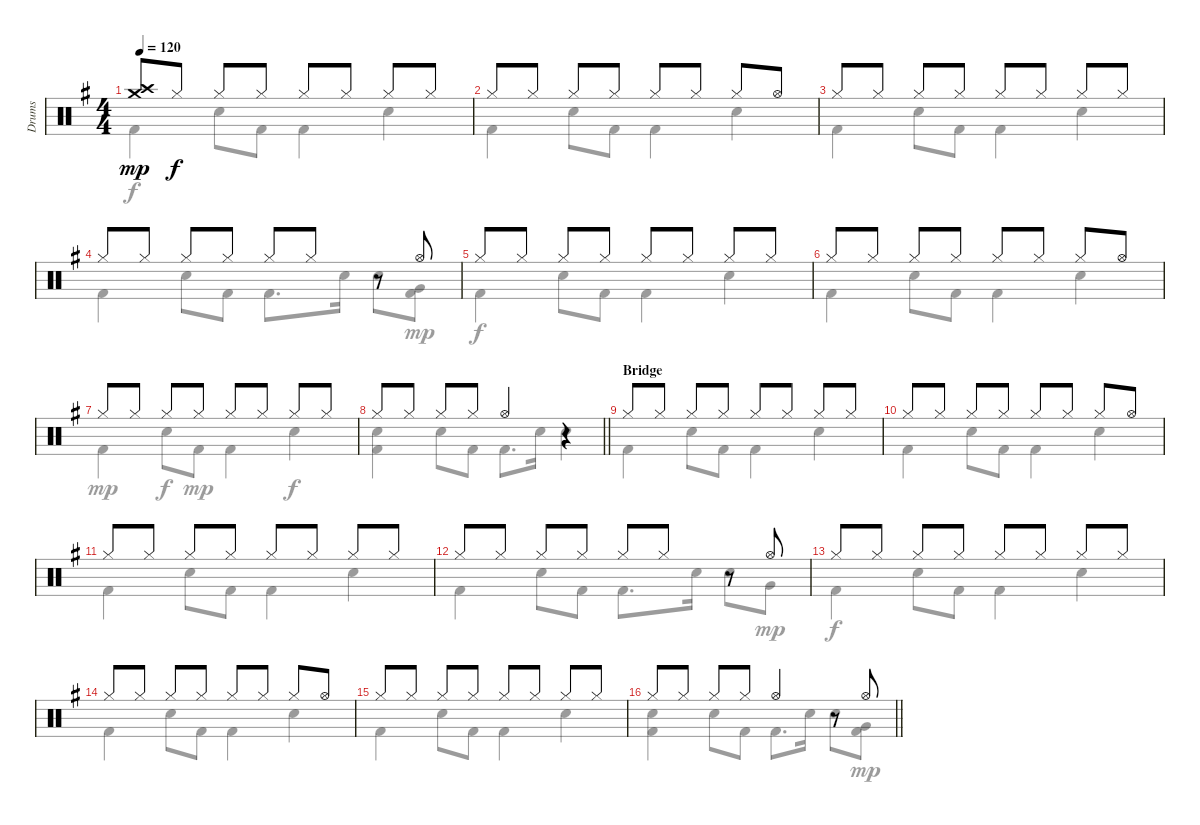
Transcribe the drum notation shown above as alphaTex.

\track ("Drums" "Drums") {instrument percussion}
\staff {score}
\articulation defaults
\voice
\ts (4 4)
\tempo 120
\clef neutral
\ks g
("Crash medium (hit)" "Crash high (hit)").8{dy mp} "Hi-Hat (closed)".8{dy f} "Hi-Hat (closed)".8 "Hi-Hat (closed)".8 "Hi-Hat (closed)".8 "Hi-Hat (closed)".8 "Hi-Hat (closed)".8 "Hi-Hat (closed)".8 |
"Hi-Hat (closed)".8 "Hi-Hat (closed)".8 "Hi-Hat (closed)".8 "Hi-Hat (closed)".8 "Hi-Hat (closed)".8 "Hi-Hat (closed)".8 "Hi-Hat (closed)".8 "Hi-Hat (open)".8 |
"Hi-Hat (closed)".8 "Hi-Hat (closed)".8 "Hi-Hat (closed)".8 "Hi-Hat (closed)".8 "Hi-Hat (closed)".8 "Hi-Hat (closed)".8 "Hi-Hat (closed)".8 "Hi-Hat (closed)".8 |
"Hi-Hat (closed)".8 "Hi-Hat (closed)".8 "Hi-Hat (closed)".8 "Hi-Hat (closed)".8 "Hi-Hat (closed)".8 "Hi-Hat (closed)".8 r.8 "Hi-Hat (open)".8 |
"Hi-Hat (closed)".8 "Hi-Hat (closed)".8 "Hi-Hat (closed)".8 "Hi-Hat (closed)".8 "Hi-Hat (closed)".8 "Hi-Hat (closed)".8 "Hi-Hat (closed)".8 "Hi-Hat (closed)".8 |
"Hi-Hat (closed)".8 "Hi-Hat (closed)".8 "Hi-Hat (closed)".8 "Hi-Hat (closed)".8 "Hi-Hat (closed)".8 "Hi-Hat (closed)".8 "Hi-Hat (closed)".8 "Hi-Hat (open)".8 |
"Hi-Hat (closed)".8 "Hi-Hat (closed)".8 "Hi-Hat (closed)".8 "Hi-Hat (closed)".8 "Hi-Hat (closed)".8 "Hi-Hat (closed)".8 "Hi-Hat (closed)".8 "Hi-Hat (closed)".8 |
\barLineRight lightlight "Hi-Hat (closed)".8 "Hi-Hat (closed)".8 "Hi-Hat (closed)".8 "Hi-Hat (closed)".8 "Hi-Hat (open)".4
r.4 |
\section ("" "Bridge")
"Hi-Hat (closed)".8 "Hi-Hat (closed)".8 "Hi-Hat (closed)".8 "Hi-Hat (closed)".8 "Hi-Hat (closed)".8 "Hi-Hat (closed)".8 "Hi-Hat (closed)".8 "Hi-Hat (closed)".8 |
"Hi-Hat (closed)".8 "Hi-Hat (closed)".8 "Hi-Hat (closed)".8 "Hi-Hat (closed)".8 "Hi-Hat (closed)".8 "Hi-Hat (closed)".8 "Hi-Hat (closed)".8 "Hi-Hat (open)".8 |
"Hi-Hat (closed)".8 "Hi-Hat (closed)".8 "Hi-Hat (closed)".8 "Hi-Hat (closed)".8 "Hi-Hat (closed)".8 "Hi-Hat (closed)".8 "Hi-Hat (closed)".8 "Hi-Hat (closed)".8 |
"Hi-Hat (closed)".8 "Hi-Hat (closed)".8 "Hi-Hat (closed)".8 "Hi-Hat (closed)".8 "Hi-Hat (closed)".8 "Hi-Hat (closed)".8 r.8 "Hi-Hat (open)".8 |
"Hi-Hat (closed)".8 "Hi-Hat (closed)".8 "Hi-Hat (closed)".8 "Hi-Hat (closed)".8 "Hi-Hat (closed)".8 "Hi-Hat (closed)".8 "Hi-Hat (closed)".8 "Hi-Hat (closed)".8 |
"Hi-Hat (closed)".8 "Hi-Hat (closed)".8 "Hi-Hat (closed)".8 "Hi-Hat (closed)".8 "Hi-Hat (closed)".8 "Hi-Hat (closed)".8 "Hi-Hat (closed)".8 "Hi-Hat (open)".8 |
"Hi-Hat (closed)".8 "Hi-Hat (closed)".8 "Hi-Hat (closed)".8 "Hi-Hat (closed)".8 "Hi-Hat (closed)".8 "Hi-Hat (closed)".8 "Hi-Hat (closed)".8 "Hi-Hat (closed)".8 |
\barLineRight lightlight "Hi-Hat (closed)".8 "Hi-Hat (closed)".8 "Hi-Hat (closed)".8 "Hi-Hat (closed)".8 "Hi-Hat (open)".4
r.8 "Hi-Hat (open)".8
\voice
\clef neutral
\ottava regular
\simile none
\ks g "Kick (hit) 2".4{dy f} "Electric Snare (hit)".8 "Kick (hit) 2".8 "Kick (hit) 2".4 "Electric Snare (hit)".4
|
"Kick (hit) 2".4 "Electric Snare (hit)".8 "Kick (hit) 2".8 "Kick (hit) 2".4 "Electric Snare (hit)".4 |
"Kick (hit) 2".4 "Electric Snare (hit)".8 "Kick (hit) 2".8 "Kick (hit) 2".4 "Electric Snare (hit)".4 |
"Kick (hit) 2".4 "Electric Snare (hit)".8 "Kick (hit) 2".8 "Kick (hit) 2".8{d} "Electric Snare (hit)".16 "Electric Snare (hit)".8 ("Very Low Tom (hit)" "Kick (hit) 2").8{dy mp} |
"Kick (hit) 2".4{dy f} "Electric Snare (hit)".8 "Kick (hit) 2".8 "Kick (hit) 2".4 "Electric Snare (hit)".4 |
"Kick (hit) 2".4 "Electric Snare (hit)".8 "Kick (hit) 2".8 "Kick (hit) 2".4 "Electric Snare (hit)".4 |
"Kick (hit) 2".4{dy mp} "Electric Snare (hit)".8{dy f} "Kick (hit) 2".8{dy mp} "Kick (hit) 2".4 "Electric Snare (hit)".4{dy f} |
\barLineRight lightlight
("Electric Snare (hit)" "Kick (hit) 2").4 "Electric Snare (hit)".8 "Kick (hit) 2".8 "Kick (hit) 2".8{d} "Electric Snare (hit)".16 "Electric Snare (hit)".4 |
"Kick (hit) 2".4 "Electric Snare (hit)".8 "Kick (hit) 2".8 "Kick (hit) 2".4 "Electric Snare (hit)".4 |
"Kick (hit) 2".4 "Electric Snare (hit)".8 "Kick (hit) 2".8 "Kick (hit) 2".4 "Electric Snare (hit)".4 |
"Kick (hit) 2".4 "Electric Snare (hit)".8 "Kick (hit) 2".8 "Kick (hit) 2".4 "Electric Snare (hit)".4 |
"Kick (hit) 2".4 "Electric Snare (hit)".8 "Kick (hit) 2".8 "Kick (hit) 2".8{d} "Electric Snare (hit)".16 "Electric Snare (hit)".8 "Very Low Tom (hit)".8{dy mp} |
"Kick (hit) 2".4{dy f} "Electric Snare (hit)".8 "Kick (hit) 2".8 "Kick (hit) 2".4 "Electric Snare (hit)".4 |
"Kick (hit) 2".4 "Electric Snare (hit)".8 "Kick (hit) 2".8 "Kick (hit) 2".4 "Electric Snare (hit)".4 |
"Kick (hit) 2".4 "Electric Snare (hit)".8 "Kick (hit) 2".8 "Kick (hit) 2".4 "Electric Snare (hit)".4 |
\barLineRight lightlight
("Electric Snare (hit)" "Kick (hit) 2").4 "Electric Snare (hit)".8 "Kick (hit) 2".8 "Kick (hit) 2".8{d} "Electric Snare (hit)".16 "Electric Snare (hit)".8 ("Very Low Tom (hit)" "Kick (hit) 2").8{dy mp}
